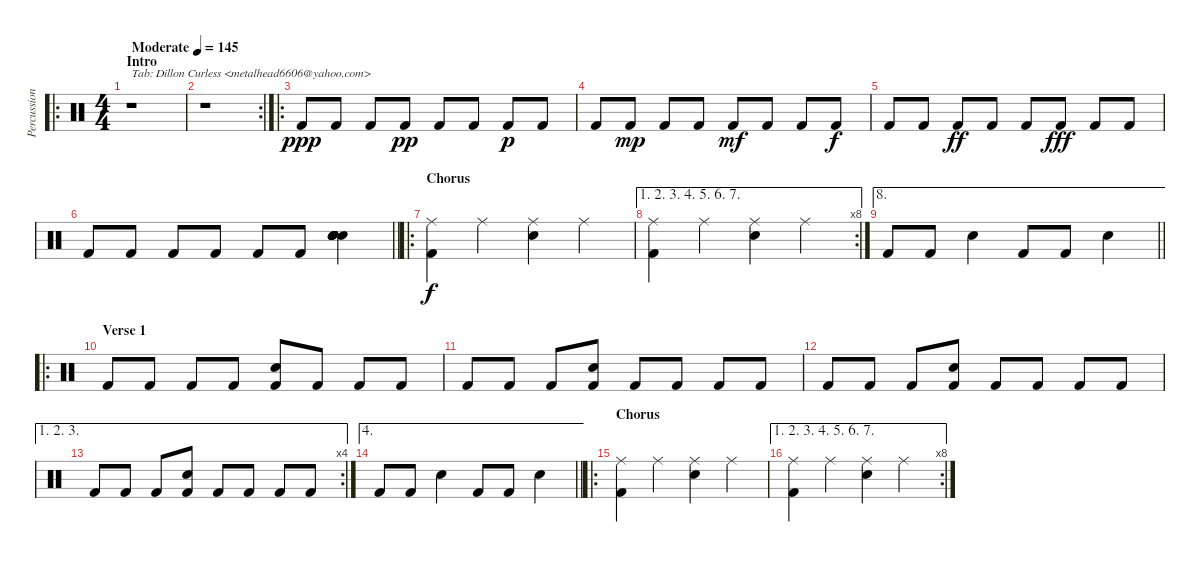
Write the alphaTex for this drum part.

\track ("Percussion" "Percussion") {instrument percussion}
\staff {score}
\articulation defaults
\ro
\ts (4 4)
\section ("" "Intro")
\tempo (145 "Moderate")
\clef neutral
\ks c
r.1{txt "Tab: Dillon Curless <metalhead6606@yahoo.com>" dy ppp} |
\rc 2
r.1 |
\ro "Kick (hit) 2".8 "Kick (hit) 2".8 "Kick (hit) 2".8 "Kick (hit) 2".8{dy pp} "Kick (hit) 2".8 "Kick (hit) 2".8 "Kick (hit) 2".8{dy p} "Kick (hit) 2".8
|
"Kick (hit) 2".8 "Kick (hit) 2".8{dy mp} "Kick (hit) 2".8 "Kick (hit) 2".8 "Kick (hit) 2".8{dy mf} "Kick (hit) 2".8 "Kick (hit) 2".8 "Kick (hit) 2".8{dy f} |
"Kick (hit) 2".8 "Kick (hit) 2".8 "Kick (hit) 2".8{dy ff} "Kick (hit) 2".8 "Kick (hit) 2".8 "Kick (hit) 2".8{dy fff} "Kick (hit) 2".8 "Kick (hit) 2".8 |
\barLineRight lightlight "Kick (hit) 2".8 "Kick (hit) 2".8 "Kick (hit) 2".8 "Kick (hit) 2".8 "Kick (hit) 2".8 "Kick (hit) 2".8
("Electric Snare (hit)" "Snare (hit) 2" "Electric Snare (hit)" "Snare (hit) 2" "Electric Snare (hit)" "Snare (hit) 2").4 |
\ro
\section ("" "Chorus")
("Kick (hit) 2" "Ride (middle)").4{dy f} "Ride (middle)".4 ("Snare (hit) 2" "Ride (middle)").4 "Ride (middle)".4 |
\ae (1 2 3 4 5 6 7)
\rc 8
("Kick (hit) 2" "Ride (middle)").4 "Ride (middle)".4 ("Snare (hit) 2" "Ride (middle)").4 "Ride (middle)".4 |
\ae 8
\barLineRight lightlight "Kick (hit) 2".8 "Kick (hit) 2".8 "Snare (hit) 2".4 "Kick (hit) 2".8 "Kick (hit) 2".8 "Snare (hit) 2".4
|
\ro
\section ("" "Verse 1")
"Kick (hit) 2".8 "Kick (hit) 2".8 "Kick (hit) 2".8 "Kick (hit) 2".8 ("Snare (hit) 2" "Kick (hit) 2").8 "Kick (hit) 2".8 "Kick (hit) 2".8 "Kick (hit) 2".8 |
"Kick (hit) 2".8 "Kick (hit) 2".8 "Kick (hit) 2".8 ("Snare (hit) 2" "Kick (hit) 2").8 "Kick (hit) 2".8 "Kick (hit) 2".8 "Kick (hit) 2".8 "Kick (hit) 2".8 |
"Kick (hit) 2".8 "Kick (hit) 2".8 "Kick (hit) 2".8 ("Snare (hit) 2" "Kick (hit) 2").8 "Kick (hit) 2".8 "Kick (hit) 2".8 "Kick (hit) 2".8 "Kick (hit) 2".8 |
\ae (1 2 3)
\rc 4 "Kick (hit) 2".8 "Kick (hit) 2".8 "Kick (hit) 2".8
("Snare (hit) 2" "Kick (hit) 2").8 "Kick (hit) 2".8 "Kick (hit) 2".8 "Kick (hit) 2".8 "Kick (hit) 2".8 |
\ae 4
\barLineRight lightlight "Kick (hit) 2".8 "Kick (hit) 2".8 "Snare (hit) 2".4 "Kick (hit) 2".8 "Kick (hit) 2".8 "Snare (hit) 2".4
|
\ro
\section ("" "Chorus")
("Kick (hit) 2" "Ride (middle)").4 "Ride (middle)".4 ("Snare (hit) 2" "Ride (middle)").4 "Ride (middle)".4 |
\ae (1 2 3 4 5 6 7)
\rc 8
("Kick (hit) 2" "Ride (middle)").4 "Ride (middle)".4 ("Snare (hit) 2" "Ride (middle)").4 "Ride (middle)".4
